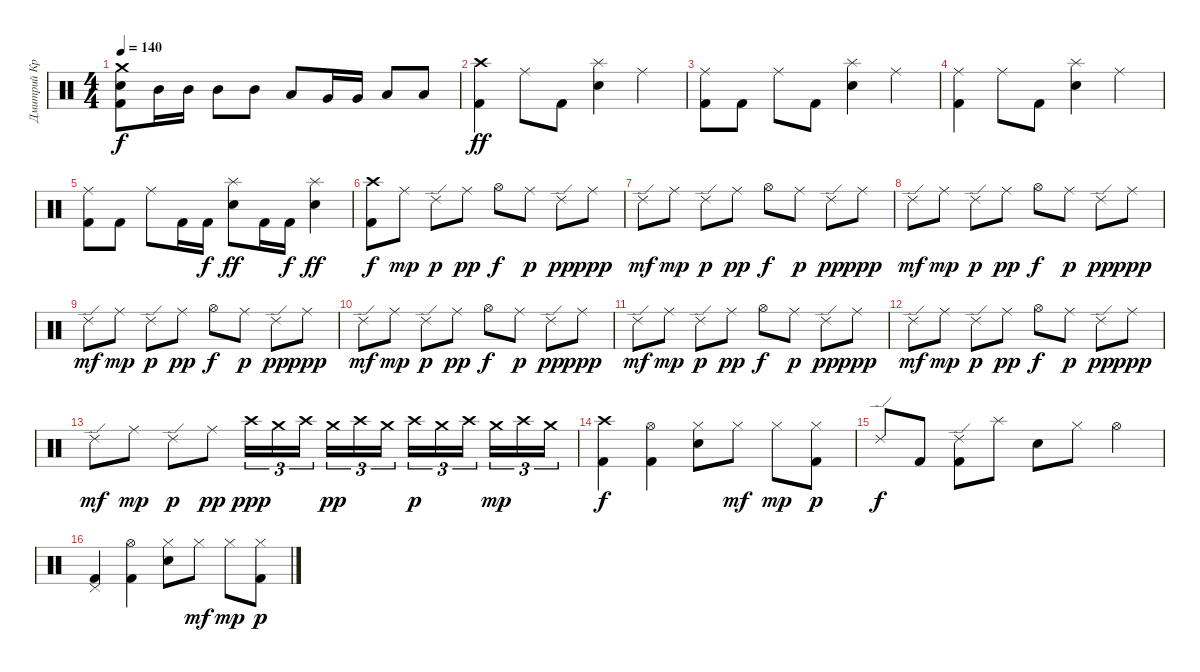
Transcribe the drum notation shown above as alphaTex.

\track ("Дмитрий Кривенков" "Дмитрий Кр") {instrument percussion}
\staff {score}
\articulation defaults
\ts (4 4)
\tempo 140
\clef neutral
\ks c
("Crash medium (hit)" "Electric Snare (hit)" "Kick (hit) 2").8{dy f} "Mid Tom (hit)".16 "Mid Tom (hit)".16 "Mid Tom (hit)".8 "Mid Tom (hit)".8 "Low Tom (hit)".8 "Very Low Tom (hit)".16 "Very Low Tom (hit)".16 "Low Floor Tom (hit)".8 "Low Floor Tom (hit)".8 |
("Crash high (hit)" "Kick (hit) 2").4{dy ff} "Ride (middle)".8 "Kick (hit) 2".8 ("Splash (hit)" "Electric Snare (hit)").4 "Ride (middle)".4 |
("Ride (middle)" "Kick (hit) 2").8 "Kick (hit) 2".8 "Ride (middle)".8 "Kick (hit) 2".8 ("Splash (hit)" "Electric Snare (hit)").4 "Ride (middle)".4 |
("Ride (middle)" "Kick (hit) 2").4 "Ride (middle)".8 "Kick (hit) 2".8 ("Splash (hit)" "Electric Snare (hit)").4 "Ride (middle)".4 |
("Ride (middle)" "Kick (hit) 2").8 "Kick (hit) 2".8 "Ride (middle)".8 "Kick (hit) 2".16 "Kick (hit) 2".16{dy f} ("Splash (hit)" "Electric Snare (hit)").8{dy ff} "Kick (hit) 2".16 "Kick (hit) 2".16{dy f} ("Splash (hit)" "Electric Snare (hit)").4{dy ff} |
("Crash high (hit)" "Kick (hit) 2").8{dy f} "Ride (middle)".8{dy mp} "Ride (edge) 2".8{dy p} "Ride (middle)".8{dy pp} "Hi-Hat (open)".8{dy f} "Ride (middle)".8{dy p} "Ride (edge) 2".8{dy pp} "Ride (middle)".8{dy ppp} |
"Ride (edge) 2".8{dy mf} "Ride (middle)".8{dy mp} "Ride (edge) 2".8{dy p} "Ride (middle)".8{dy pp} "Hi-Hat (open)".8{dy f} "Ride (middle)".8{dy p} "Ride (edge) 2".8{dy pp} "Ride (middle)".8{dy ppp} |
"Ride (edge) 2".8{dy mf} "Ride (middle)".8{dy mp} "Ride (edge) 2".8{dy p} "Ride (middle)".8{dy pp} "Hi-Hat (open)".8{dy f} "Ride (middle)".8{dy p} "Ride (edge) 2".8{dy pp} "Ride (middle)".8{dy ppp} |
"Ride (edge) 2".8{dy mf} "Ride (middle)".8{dy mp} "Ride (edge) 2".8{dy p} "Ride (middle)".8{dy pp} "Hi-Hat (open)".8{dy f} "Ride (middle)".8{dy p} "Ride (edge) 2".8{dy pp} "Ride (middle)".8{dy ppp} |
"Ride (edge) 2".8{dy mf} "Ride (middle)".8{dy mp} "Ride (edge) 2".8{dy p} "Ride (middle)".8{dy pp} "Hi-Hat (open)".8{dy f} "Ride (middle)".8{dy p} "Ride (edge) 2".8{dy pp} "Ride (middle)".8{dy ppp} |
"Ride (edge) 2".8{dy mf} "Ride (middle)".8{dy mp} "Ride (edge) 2".8{dy p} "Ride (middle)".8{dy pp} "Hi-Hat (open)".8{dy f} "Ride (middle)".8{dy p} "Ride (edge) 2".8{dy pp} "Ride (middle)".8{dy ppp} |
"Ride (edge) 2".8{dy mf} "Ride (middle)".8{dy mp} "Ride (edge) 2".8{dy p} "Ride (middle)".8{dy pp} "Hi-Hat (open)".8{dy f} "Ride (middle)".8{dy p} "Ride (edge) 2".8{dy pp} "Ride (middle)".8{dy ppp} |
"Ride (edge) 2".8{dy mf} "Ride (middle)".8{dy mp} "Ride (edge) 2".8{dy p} "Ride (middle)".8{dy pp} "Crash high (hit)".16{tu (3 2) dy ppp} "Crash medium (hit)".16{tu (3 2)} "Crash high (hit)".16{tu (3 2) beam splitsecondary} "Crash medium (hit)".16{tu (3 2) dy pp} "Crash high (hit)".16{tu (3 2)} "Crash medium (hit)".16{tu (3 2)} "Crash high (hit)".16{tu (3 2) dy p} "Crash medium (hit)".16{tu (3 2)} "Crash high (hit)".16{tu (3 2) beam splitsecondary} "Crash medium (hit)".16{tu (3 2) dy mp} "Crash high (hit)".16{tu (3 2)} "Crash medium (hit)".16{tu (3 2)} |
("Crash high (hit)" "Kick (hit) 2").4{dy f} ("Hi-Hat (open)" "Kick (hit) 2").4 ("Hi-Hat (closed)" "Electric Snare (hit)").8 "Hi-Hat (closed)".8{dy mf} "Hi-Hat (closed)".8{dy mp} ("Hi-Hat (closed)" "Kick (hit) 2").8{dy p} |
"Ride (edge) 2".8{dy f} "Kick (hit) 2".8 ("Ride (edge) 2" "Kick (hit) 2").8 "Splash (hit)".8 "Electric Snare (hit)".8 "Hi-Hat (closed)".8 "Hi-Hat (open)".4 |
("Pedal Hi-Hat (hit)" "Kick (hit) 2").4 ("Hi-Hat (open)" "Kick (hit) 2").4 ("Hi-Hat (closed)" "Electric Snare (hit)").8 "Hi-Hat (closed)".8{dy mf} "Hi-Hat (closed)".8{dy mp} ("Hi-Hat (closed)" "Kick (hit) 2").8{dy p}
